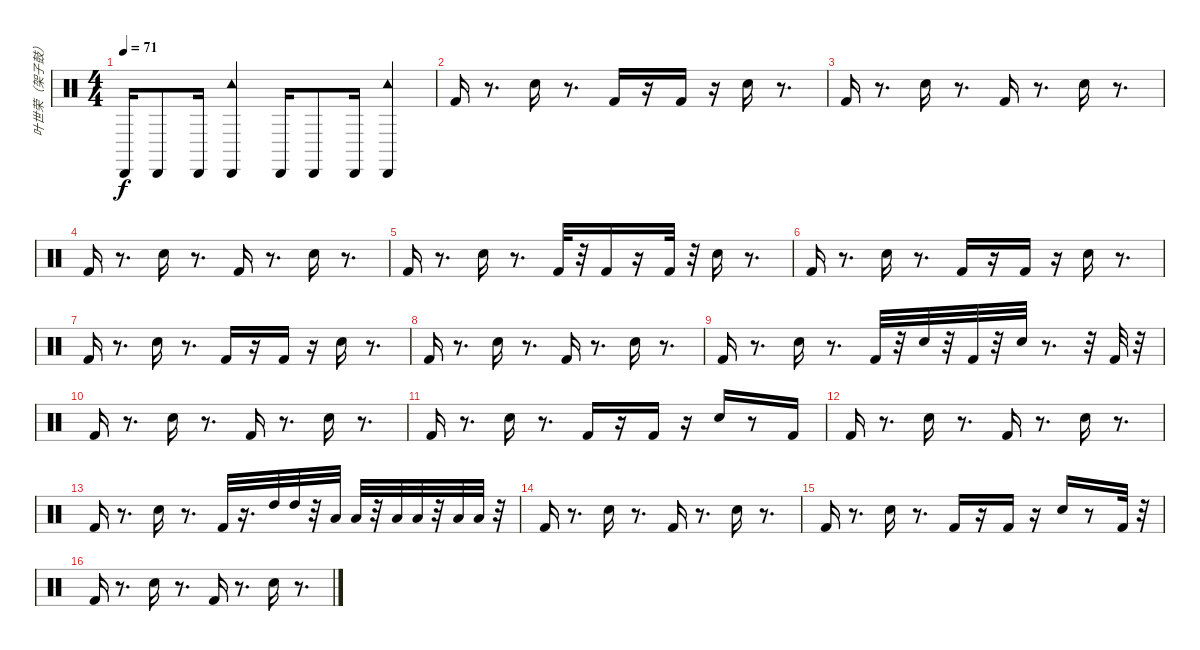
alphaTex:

\track ("叶世荣（架子鼓）" "叶世荣（架子鼓）") {instrument percussion}
\staff {score}
\articulation defaults
\ts (4 4)
\tempo 71
\clef neutral
\ks c "Cabasa (hit)".16{dy f} "Cabasa (hit)".8 "Cabasa (hit)".16
("Tambourine (hit)" "Cabasa (hit)").4 "Cabasa (hit)".16 "Cabasa (hit)".8 "Cabasa (hit)".16 ("Tambourine (hit)" "Cabasa (hit)").4 |
"Kick (hit) 2".16 r.8{d} "Snare (hit) 2".16 r.8{d} "Kick (hit) 2".16 r.16 "Kick (hit) 2".16 r.16 "Snare (hit) 2".16 r.8{d} |
"Kick (hit) 2".16 r.8{d} "Snare (hit) 2".16 r.8{d} "Kick (hit) 2".16 r.8{d} "Snare (hit) 2".16 r.8{d} |
"Kick (hit) 2".16 r.8{d} "Snare (hit) 2".16 r.8{d} "Kick (hit) 2".16 r.8{d} "Snare (hit) 2".16 r.8{d} |
"Kick (hit) 2".16 r.8{d} "Snare (hit) 2".16 r.8{d} "Kick (hit) 2".32 r.32 "Kick (hit) 2".16 r.16 "Kick (hit) 2".32 r.32 "Snare (hit) 2".16 r.8{d} |
"Kick (hit) 2".16 r.8{d} "Snare (hit) 2".16 r.8{d} "Kick (hit) 2".16 r.16 "Kick (hit) 2".16 r.16 "Snare (hit) 2".16 r.8{d} |
"Kick (hit) 2".16 r.8{d} "Snare (hit) 2".16 r.8{d} "Kick (hit) 2".16 r.16 "Kick (hit) 2".16 r.16 "Snare (hit) 2".16 r.8{d} |
"Kick (hit) 2".16 r.8{d} "Snare (hit) 2".16 r.8{d} "Kick (hit) 2".16 r.8{d} "Snare (hit) 2".16 r.8{d} |
"Kick (hit) 2".16 r.8{d} "Snare (hit) 2".16 r.8{d} "Kick (hit) 2".32 r.32 "Snare (hit) 2".32 r.32 "Kick (hit) 2".32 r.32 "Snare (hit) 2".32 r.8{d} r.32 "Kick (hit) 2".32 r.32 |
"Kick (hit) 2".16 r.8{d} "Snare (hit) 2".16 r.8{d} "Kick (hit) 2".16 r.8{d} "Snare (hit) 2".16 r.8{d} |
"Kick (hit) 2".16 r.8{d} "Snare (hit) 2".16 r.8{d} "Kick (hit) 2".16 r.16 "Kick (hit) 2".16 r.16 "Snare (hit) 2".16 r.8 "Kick (hit) 2".16 |
"Kick (hit) 2".16 r.8{d} "Snare (hit) 2".16 r.8{d} "Kick (hit) 2".16 r.8{d} "Snare (hit) 2".16 r.8{d} |
"Kick (hit) 2".16 r.8{d} "Snare (hit) 2".16 r.8{d} "Kick (hit) 2".32 r.16{d} "High Tom (hit)".32 "High Tom (hit)".32 r.32 "Low Tom (hit)".32 "Low Tom (hit)".32 r.32 "Low Floor Tom (hit)".32 "Low Floor Tom (hit)".32 r.32 "Low Floor Tom (hit)".32 "Low Floor Tom (hit)".32 r.32 |
"Kick (hit) 2".16 r.8{d} "Snare (hit) 2".16 r.8{d} "Kick (hit) 2".16 r.8{d} "Snare (hit) 2".16 r.8{d} |
"Kick (hit) 2".16 r.8{d} "Snare (hit) 2".16 r.8{d} "Kick (hit) 2".16 r.16 "Kick (hit) 2".16 r.16 "Snare (hit) 2".16 r.8 "Kick (hit) 2".32 r.32 |
"Kick (hit) 2".16 r.8{d} "Snare (hit) 2".16 r.8{d} "Kick (hit) 2".16 r.8{d} "Snare (hit) 2".16 r.8{d}
